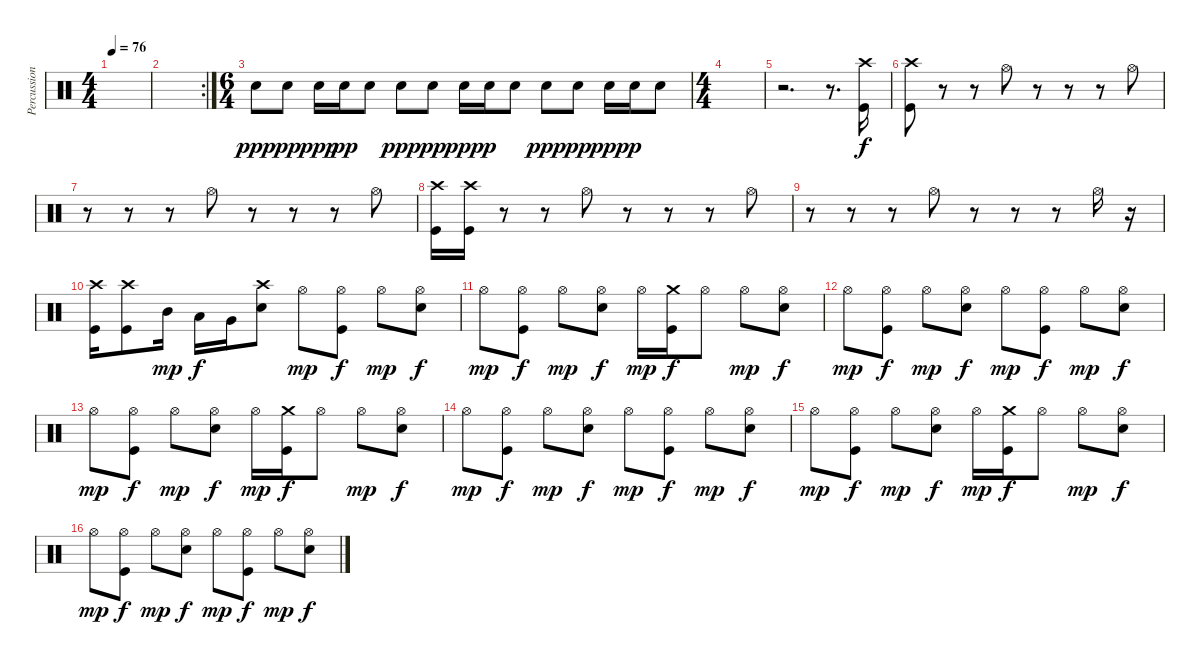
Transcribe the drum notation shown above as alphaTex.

\track ("Percussion" "Percussion") {instrument percussion}
\staff {score}
\articulation defaults
\ts (4 4)
\tempo 76
\clef neutral
\ks c
|
\rc 2
|
\ts (6 4)
"Snare (hit) 2".8{dy ppp} "Snare (hit) 2".8{dy pp} "Snare (hit) 2".16{dy ppp} "Snare (hit) 2".16{dy pp} "Snare (hit) 2".8 "Snare (hit) 2".8{dy ppp} "Snare (hit) 2".8{dy pp} "Snare (hit) 2".16{dy ppp} "Snare (hit) 2".16{dy p} "Snare (hit) 2".8 "Snare (hit) 2".8{dy ppp} "Snare (hit) 2".8{dy pp} "Snare (hit) 2".16{dy ppp} "Snare (hit) 2".16{dy p} "Snare (hit) 2".8 |
\ts (4 4)
|
r.2{d} r.8{d} ("Crash high (hit)" "Kick (hit)").16{dy f volume 14} |
("Crash high (hit)" "Kick (hit)").8 r.8 r.8 "Hi-Hat (open)".8 r.8 r.8 r.8 "Hi-Hat (open)".8 |
r.8 r.8 r.8 "Hi-Hat (open)".8 r.8 r.8 r.8 "Hi-Hat (open)".8 |
("Crash high (hit)" "Kick (hit)").16 ("Crash high (hit)" "Kick (hit)").16 r.8 r.8 "Hi-Hat (open)".8 r.8 r.8 r.8 "Hi-Hat (open)".8 |
r.8 r.8 r.8 "Hi-Hat (open)".8 r.8 r.8 r.8 "Hi-Hat (open)".16 r.16 |
("Crash high (hit)" "Kick (hit)").16 ("Crash high (hit)" "Kick (hit)").8 "Mid Tom (hit)".16{dy mp} "Low Tom (hit)".16{dy f} "Very Low Tom (hit)".16 ("Crash high (hit)" "Electric Snare (hit)").8 "Hi-Hat (open)".8{dy mp} ("Hi-Hat (open)" "Kick (hit)").8{dy f} "Hi-Hat (open)".8{dy mp} ("Hi-Hat (open)" "Electric Snare (hit)").8{dy f} |
"Hi-Hat (open)".8{dy mp} ("Hi-Hat (open)" "Kick (hit)").8{dy f} "Hi-Hat (open)".8{dy mp} ("Hi-Hat (open)" "Electric Snare (hit)").8{dy f} "Hi-Hat (open)".16{dy mp} ("Crash medium (hit)" "Kick (hit)").16{dy f} "Hi-Hat (open)".8 "Hi-Hat (open)".8{dy mp} ("Hi-Hat (open)" "Electric Snare (hit)").8{dy f} |
"Hi-Hat (open)".8{dy mp} ("Hi-Hat (open)" "Kick (hit)").8{dy f} "Hi-Hat (open)".8{dy mp} ("Hi-Hat (open)" "Electric Snare (hit)").8{dy f} "Hi-Hat (open)".8{dy mp} ("Hi-Hat (open)" "Kick (hit)").8{dy f} "Hi-Hat (open)".8{dy mp} ("Hi-Hat (open)" "Electric Snare (hit)").8{dy f} |
"Hi-Hat (open)".8{dy mp} ("Hi-Hat (open)" "Kick (hit)").8{dy f} "Hi-Hat (open)".8{dy mp} ("Hi-Hat (open)" "Electric Snare (hit)").8{dy f} "Hi-Hat (open)".16{dy mp} ("Crash medium (hit)" "Kick (hit)").16{dy f} "Hi-Hat (open)".8 "Hi-Hat (open)".8{dy mp} ("Hi-Hat (open)" "Electric Snare (hit)").8{dy f} |
"Hi-Hat (open)".8{dy mp} ("Hi-Hat (open)" "Kick (hit)").8{dy f} "Hi-Hat (open)".8{dy mp} ("Hi-Hat (open)" "Electric Snare (hit)").8{dy f} "Hi-Hat (open)".8{dy mp} ("Hi-Hat (open)" "Kick (hit)").8{dy f} "Hi-Hat (open)".8{dy mp} ("Hi-Hat (open)" "Electric Snare (hit)").8{dy f} |
"Hi-Hat (open)".8{dy mp} ("Hi-Hat (open)" "Kick (hit)").8{dy f} "Hi-Hat (open)".8{dy mp} ("Hi-Hat (open)" "Electric Snare (hit)").8{dy f} "Hi-Hat (open)".16{dy mp} ("Crash medium (hit)" "Kick (hit)").16{dy f} "Hi-Hat (open)".8 "Hi-Hat (open)".8{dy mp} ("Hi-Hat (open)" "Electric Snare (hit)").8{dy f} |
"Hi-Hat (open)".8{dy mp} ("Hi-Hat (open)" "Kick (hit)").8{dy f} "Hi-Hat (open)".8{dy mp} ("Hi-Hat (open)" "Electric Snare (hit)").8{dy f} "Hi-Hat (open)".8{dy mp} ("Hi-Hat (open)" "Kick (hit)").8{dy f} "Hi-Hat (open)".8{dy mp} ("Hi-Hat (open)" "Electric Snare (hit)").8{dy f}
